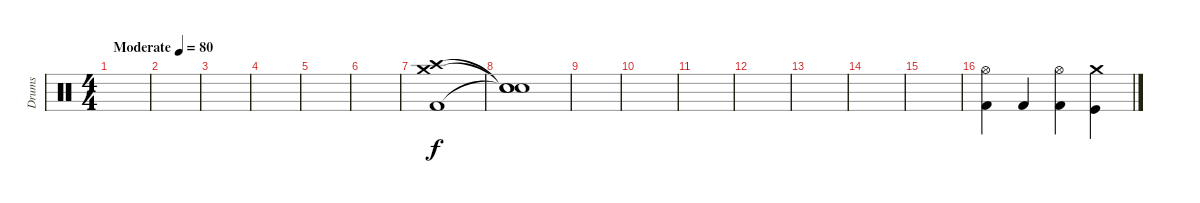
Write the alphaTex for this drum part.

\track ("Drums" "Drums") {instrument percussion}
\staff {score}
\articulation defaults
\ts (4 4)
\tempo (80 "Moderate")
\clef neutral
\ks c
|
|
|
|
|
|
("Crash high (hit)" "Crash medium (hit)" "Kick (hit) 2").1 |
("Snare (hit)"{t} "Snare (hit)"{t} "Snare (hit)"{t}).1 |
|
|
|
|
|
|
|
("Hi-Hat (open)" "Kick (hit) 2").4 "Kick (hit) 2".4 ("Hi-Hat (open)" "Kick (hit) 2").4 ("Crash medium (hit)" "Kick (hit)").4
